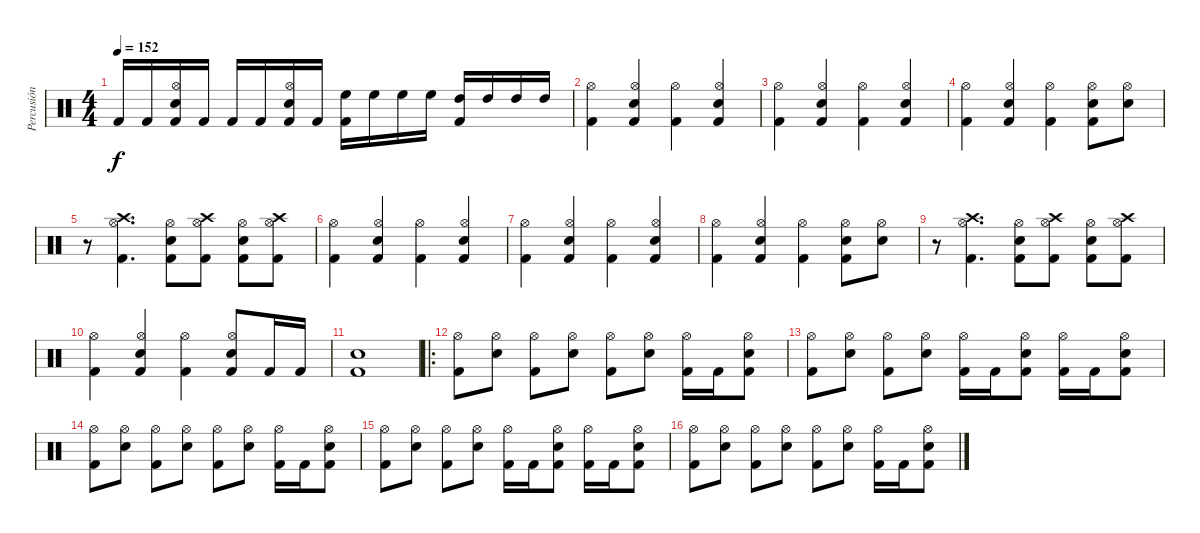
\track ("Percusión" "Percusión") {instrument percussion}
\staff {score}
\articulation defaults
\ts (4 4)
\tempo 152
\clef neutral
\ks c "Kick (hit) 2".16{dy f} "Kick (hit) 2".16
("Hi-Hat (open)" "Snare (hit) 2" "Kick (hit) 2").16 "Kick (hit) 2".16 "Kick (hit) 2".16 "Kick (hit) 2".16 ("Hi-Hat (open)" "Snare (hit) 2" "Kick (hit) 2").16 "Kick (hit) 2".16 ("Kick (hit) 2" "High Floor Tom (hit)").16 "High Floor Tom (hit)".16 "High Floor Tom (hit)".16 "High Floor Tom (hit)".16 ("Kick (hit) 2" "High Tom (hit)").16 "High Tom (hit)".16 "High Tom (hit)".16 "High Tom (hit)".16 |
("Hi-Hat (open)" "Kick (hit) 2").4 ("Hi-Hat (open)" "Snare (hit) 2" "Kick (hit) 2").4 ("Hi-Hat (open)" "Kick (hit) 2").4 ("Hi-Hat (open)" "Snare (hit) 2" "Kick (hit) 2").4 |
("Hi-Hat (open)" "Kick (hit) 2").4 ("Hi-Hat (open)" "Snare (hit) 2" "Kick (hit) 2").4 ("Hi-Hat (open)" "Kick (hit) 2").4 ("Hi-Hat (open)" "Snare (hit) 2" "Kick (hit) 2").4 |
("Hi-Hat (open)" "Kick (hit) 2").4 ("Hi-Hat (open)" "Snare (hit) 2" "Kick (hit) 2").4 ("Hi-Hat (open)" "Kick (hit) 2").4 ("Hi-Hat (open)" "Snare (hit) 2" "Kick (hit) 2").8 ("Hi-Hat (open)" "Snare (hit) 2").8 |
r.8 ("Crash high (hit)" "Hi-Hat (open)" "Kick (hit) 2").4{d} ("Hi-Hat (open)" "Snare (hit) 2" "Kick (hit) 2").8 ("Crash high (hit)" "Hi-Hat (open)" "Kick (hit) 2").8 ("Hi-Hat (open)" "Snare (hit) 2" "Kick (hit) 2").8 ("Crash high (hit)" "Hi-Hat (open)" "Kick (hit) 2").8 |
("Hi-Hat (open)" "Kick (hit) 2").4 ("Hi-Hat (open)" "Snare (hit) 2" "Kick (hit) 2").4 ("Hi-Hat (open)" "Kick (hit) 2").4 ("Hi-Hat (open)" "Snare (hit) 2" "Kick (hit) 2").4 |
("Hi-Hat (open)" "Kick (hit) 2").4 ("Hi-Hat (open)" "Snare (hit) 2" "Kick (hit) 2").4 ("Hi-Hat (open)" "Kick (hit) 2").4 ("Hi-Hat (open)" "Snare (hit) 2" "Kick (hit) 2").4 |
("Hi-Hat (open)" "Kick (hit) 2").4 ("Hi-Hat (open)" "Snare (hit) 2" "Kick (hit) 2").4 ("Hi-Hat (open)" "Kick (hit) 2").4 ("Hi-Hat (open)" "Snare (hit) 2" "Kick (hit) 2").8 ("Hi-Hat (open)" "Snare (hit) 2").8 |
r.8 ("Crash high (hit)" "Hi-Hat (open)" "Kick (hit) 2").4{d} ("Hi-Hat (open)" "Snare (hit) 2" "Kick (hit) 2").8 ("Crash high (hit)" "Hi-Hat (open)" "Kick (hit) 2").8 ("Hi-Hat (open)" "Snare (hit) 2" "Kick (hit) 2").8 ("Crash high (hit)" "Hi-Hat (open)" "Kick (hit) 2").8 |
("Hi-Hat (open)" "Kick (hit) 2").4 ("Hi-Hat (open)" "Snare (hit) 2" "Kick (hit) 2").4 ("Hi-Hat (open)" "Kick (hit) 2").4 ("Hi-Hat (open)" "Snare (hit) 2" "Kick (hit) 2").8 "Kick (hit) 2".16 "Kick (hit) 2".16 |
("Snare (hit) 2" "Kick (hit) 2").1 |
\ro
("Hi-Hat (open)" "Kick (hit) 2").8 ("Hi-Hat (open)" "Snare (hit) 2").8 ("Hi-Hat (open)" "Kick (hit) 2").8 ("Hi-Hat (open)" "Snare (hit) 2").8 ("Hi-Hat (open)" "Kick (hit) 2").8 ("Hi-Hat (open)" "Snare (hit) 2").8 ("Hi-Hat (open)" "Kick (hit) 2").16 "Kick (hit) 2".16 ("Hi-Hat (open)" "Snare (hit) 2" "Kick (hit) 2").8 |
("Hi-Hat (open)" "Kick (hit) 2").8 ("Hi-Hat (open)" "Snare (hit) 2").8 ("Hi-Hat (open)" "Kick (hit) 2").8 ("Hi-Hat (open)" "Snare (hit) 2").8 ("Hi-Hat (open)" "Kick (hit) 2").16 "Kick (hit) 2".16 ("Hi-Hat (open)" "Snare (hit) 2" "Kick (hit) 2").8 ("Hi-Hat (open)" "Kick (hit) 2").16 "Kick (hit) 2".16 ("Hi-Hat (open)" "Snare (hit) 2" "Kick (hit) 2").8 |
("Hi-Hat (open)" "Kick (hit) 2").8 ("Hi-Hat (open)" "Snare (hit) 2").8 ("Hi-Hat (open)" "Kick (hit) 2").8 ("Hi-Hat (open)" "Snare (hit) 2").8 ("Hi-Hat (open)" "Kick (hit) 2").8 ("Hi-Hat (open)" "Snare (hit) 2").8 ("Hi-Hat (open)" "Kick (hit) 2").16 "Kick (hit) 2".16 ("Hi-Hat (open)" "Snare (hit) 2" "Kick (hit) 2").8 |
("Hi-Hat (open)" "Kick (hit) 2").8 ("Hi-Hat (open)" "Snare (hit) 2").8 ("Hi-Hat (open)" "Kick (hit) 2").8 ("Hi-Hat (open)" "Snare (hit) 2").8 ("Hi-Hat (open)" "Kick (hit) 2").16 "Kick (hit) 2".16 ("Hi-Hat (open)" "Snare (hit) 2" "Kick (hit) 2").8 ("Hi-Hat (open)" "Kick (hit) 2").16 "Kick (hit) 2".16 ("Hi-Hat (open)" "Snare (hit) 2" "Kick (hit) 2").8 |
("Hi-Hat (open)" "Kick (hit) 2").8 ("Hi-Hat (open)" "Snare (hit) 2").8 ("Hi-Hat (open)" "Kick (hit) 2").8 ("Hi-Hat (open)" "Snare (hit) 2").8 ("Hi-Hat (open)" "Kick (hit) 2").8 ("Hi-Hat (open)" "Snare (hit) 2").8 ("Hi-Hat (open)" "Kick (hit) 2").16 "Kick (hit) 2".16 ("Hi-Hat (open)" "Snare (hit) 2" "Kick (hit) 2").8
